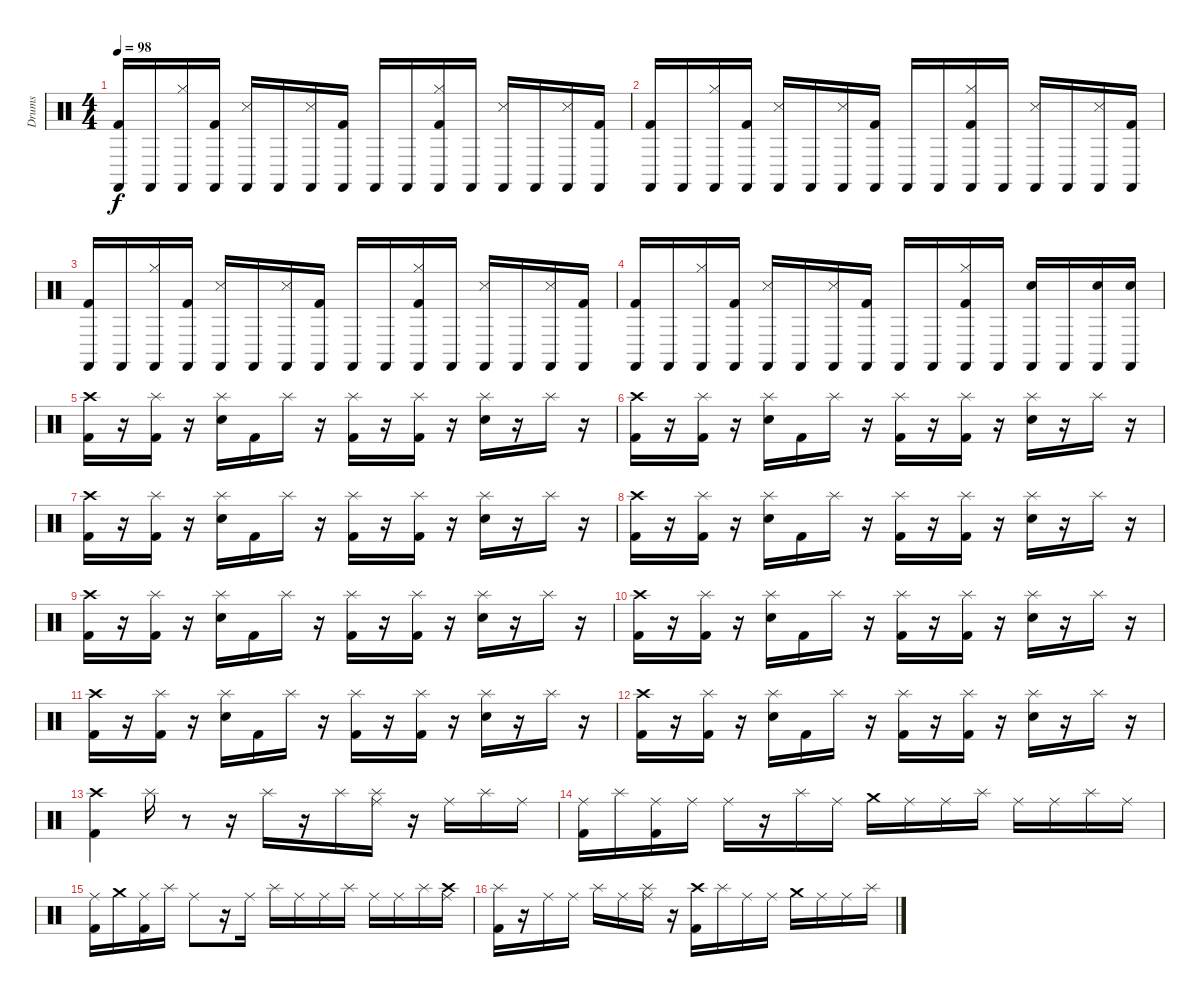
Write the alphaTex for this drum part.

\track ("Drums" "Drums") {instrument percussion}
\staff {score}
\articulation defaults
\ts (4 4)
\tempo 98
\clef neutral
\ks c
("Castanets (hit)" "Kick (hit) 2").16{dy f} "Castanets (hit)".16 ("Castanets (hit)" "Hi-Hat (closed)").16 ("Castanets (hit)" "Kick (hit) 2").16 ("Castanets (hit)" "Snare (side stick) 3").16 "Castanets (hit)".16 ("Castanets (hit)" "Snare (side stick) 3").16 ("Castanets (hit)" "Kick (hit) 2").16 "Castanets (hit)".16 "Castanets (hit)".16 ("Castanets (hit)" "Hi-Hat (closed)" "Kick (hit) 2").16 "Castanets (hit)".16 ("Castanets (hit)" "Snare (side stick) 3").16 "Castanets (hit)".16 ("Castanets (hit)" "Snare (side stick) 3").16 ("Castanets (hit)" "Kick (hit) 2").16 |
("Castanets (hit)" "Kick (hit) 2").16 "Castanets (hit)".16 ("Castanets (hit)" "Hi-Hat (closed)").16 ("Castanets (hit)" "Kick (hit) 2").16 ("Castanets (hit)" "Snare (side stick) 3").16 "Castanets (hit)".16 ("Castanets (hit)" "Snare (side stick) 3").16 ("Castanets (hit)" "Kick (hit) 2").16 "Castanets (hit)".16 "Castanets (hit)".16 ("Castanets (hit)" "Hi-Hat (closed)" "Kick (hit) 2").16 "Castanets (hit)".16 ("Castanets (hit)" "Snare (side stick) 3").16 "Castanets (hit)".16 ("Castanets (hit)" "Snare (side stick) 3").16 ("Castanets (hit)" "Kick (hit) 2").16 |
("Castanets (hit)" "Kick (hit) 2").16 "Castanets (hit)".16 ("Castanets (hit)" "Hi-Hat (closed)").16 ("Castanets (hit)" "Kick (hit) 2").16 ("Castanets (hit)" "Snare (side stick) 3").16 "Castanets (hit)".16 ("Castanets (hit)" "Snare (side stick) 3").16 ("Castanets (hit)" "Kick (hit) 2").16 "Castanets (hit)".16 "Castanets (hit)".16 ("Castanets (hit)" "Hi-Hat (closed)" "Kick (hit) 2").16 "Castanets (hit)".16 ("Castanets (hit)" "Snare (side stick) 3").16 "Castanets (hit)".16 ("Castanets (hit)" "Snare (side stick) 3").16 ("Castanets (hit)" "Kick (hit) 2").16 |
("Castanets (hit)" "Kick (hit) 2").16 "Castanets (hit)".16 ("Castanets (hit)" "Hi-Hat (closed)").16 ("Castanets (hit)" "Kick (hit) 2").16 ("Castanets (hit)" "Snare (side stick) 3").16 "Castanets (hit)".16 ("Castanets (hit)" "Snare (side stick) 3").16 ("Castanets (hit)" "Kick (hit) 2").16 "Castanets (hit)".16 "Castanets (hit)".16 ("Castanets (hit)" "Hi-Hat (closed)" "Kick (hit) 2").16 "Castanets (hit)".16 ("Castanets (hit)" "Snare (hit) 2").16 "Castanets (hit)".16 ("Castanets (hit)" "Snare (hit) 2").16 ("Castanets (hit)" "Snare (hit) 2").16 |
("Crash high (hit)" "Kick (hit) 2").16 r.16 ("Splash (hit)" "Kick (hit) 2").16 r.16 ("Splash (hit)" "Electric Snare (hit)").16 "Kick (hit) 2".16 "Splash (hit)".16 r.16 ("Splash (hit)" "Kick (hit) 2").16 r.16 ("Splash (hit)" "Kick (hit) 2").16 r.16 ("Splash (hit)" "Electric Snare (hit)").16 r.16 "Splash (hit)".16 r.16 |
("Crash high (hit)" "Kick (hit) 2").16 r.16 ("Splash (hit)" "Kick (hit) 2").16 r.16 ("Splash (hit)" "Electric Snare (hit)").16 "Kick (hit) 2".16 "Splash (hit)".16 r.16 ("Splash (hit)" "Kick (hit) 2").16 r.16 ("Splash (hit)" "Kick (hit) 2").16 r.16 ("Splash (hit)" "Electric Snare (hit)").16 r.16 "Splash (hit)".16 r.16 |
("Crash high (hit)" "Kick (hit) 2").16 r.16 ("Splash (hit)" "Kick (hit) 2").16 r.16 ("Splash (hit)" "Electric Snare (hit)").16 "Kick (hit) 2".16 "Splash (hit)".16 r.16 ("Splash (hit)" "Kick (hit) 2").16 r.16 ("Splash (hit)" "Kick (hit) 2").16 r.16 ("Splash (hit)" "Electric Snare (hit)").16 r.16 "Splash (hit)".16 r.16 |
("Crash high (hit)" "Kick (hit) 2").16 r.16 ("Splash (hit)" "Kick (hit) 2").16 r.16 ("Splash (hit)" "Electric Snare (hit)").16 "Kick (hit) 2".16 "Splash (hit)".16 r.16 ("Splash (hit)" "Kick (hit) 2").16 r.16 ("Splash (hit)" "Kick (hit) 2").16 r.16 ("Splash (hit)" "Electric Snare (hit)").16 r.16 "Splash (hit)".16 r.16 |
("Crash high (hit)" "Kick (hit) 2").16 r.16 ("Splash (hit)" "Kick (hit) 2").16 r.16 ("Splash (hit)" "Electric Snare (hit)").16 "Kick (hit) 2".16 "Splash (hit)".16 r.16 ("Splash (hit)" "Kick (hit) 2").16 r.16 ("Splash (hit)" "Kick (hit) 2").16 r.16 ("Splash (hit)" "Electric Snare (hit)").16 r.16 "Splash (hit)".16 r.16 |
("Crash high (hit)" "Kick (hit) 2").16 r.16 ("Splash (hit)" "Kick (hit) 2").16 r.16 ("Splash (hit)" "Electric Snare (hit)").16 "Kick (hit) 2".16 "Splash (hit)".16 r.16 ("Splash (hit)" "Kick (hit) 2").16 r.16 ("Splash (hit)" "Kick (hit) 2").16 r.16 ("Splash (hit)" "Electric Snare (hit)").16 r.16 "Splash (hit)".16 r.16 |
("Crash high (hit)" "Kick (hit) 2").16 r.16 ("Splash (hit)" "Kick (hit) 2").16 r.16 ("Splash (hit)" "Electric Snare (hit)").16 "Kick (hit) 2".16 "Splash (hit)".16 r.16 ("Splash (hit)" "Kick (hit) 2").16 r.16 ("Splash (hit)" "Kick (hit) 2").16 r.16 ("Splash (hit)" "Electric Snare (hit)").16 r.16 "Splash (hit)".16 r.16 |
("Crash high (hit)" "Kick (hit) 2").16 r.16 ("Splash (hit)" "Kick (hit) 2").16 r.16 ("Splash (hit)" "Electric Snare (hit)").16 "Kick (hit) 2".16 "Splash (hit)".16 r.16 ("Splash (hit)" "Kick (hit) 2").16 r.16 ("Splash (hit)" "Kick (hit) 2").16 r.16 ("Splash (hit)" "Electric Snare (hit)").16 r.16 "Splash (hit)".16 r.16 |
("Crash high (hit)" "Kick (hit) 2").4{volume 6} "Splash (hit)".16 r.8 r.16 "Splash (hit)".16 r.16 "Splash (hit)".16 ("Ride (middle)" "Splash (hit)").16 r.16 "Ride (middle)".16 "Splash (hit)".16 "Ride (middle)".16 |
("Ride (middle)" "Kick (hit) 2").16 "Splash (hit)".16 ("Ride (middle)" "Kick (hit) 2").16 "Ride (middle)".16 "Ride (middle)".16 r.16 "Splash (hit)".16 "Ride (middle)".16 "Crash medium (hit)".16 "Ride (middle)".16 "Ride (middle)".16 "Splash (hit)".16 "Ride (middle)".16 "Ride (middle)".16 "Splash (hit)".16 "Ride (middle)".16 |
("Ride (middle)" "Kick (hit) 2").16 "Crash medium (hit)".16 ("Ride (middle)" "Kick (hit) 2").16 "Splash (hit)".16 "Ride (middle)".8 r.16 "Ride (middle)".16 "Splash (hit)".16 "Ride (middle)".16 "Ride (middle)".16 "Splash (hit)".16 "Ride (middle)".16 "Ride (middle)".16 "Splash (hit)".16 ("Ride (middle)" "Crash high (hit)").16 |
("Splash (hit)" "Kick (hit) 2").16 r.16 "Ride (middle)".16 "Ride (middle)".16 "Splash (hit)".16 "Ride (middle)".16 ("Splash (hit)" "Ride (middle)").16 r.16 ("Crash high (hit)" "Kick (hit) 2").16 "Splash (hit)".16 "Ride (middle)".16 "Ride (middle)".16 "Crash medium (hit)".16 "Ride (middle)".16 "Ride (middle)".16 "Splash (hit)".16
